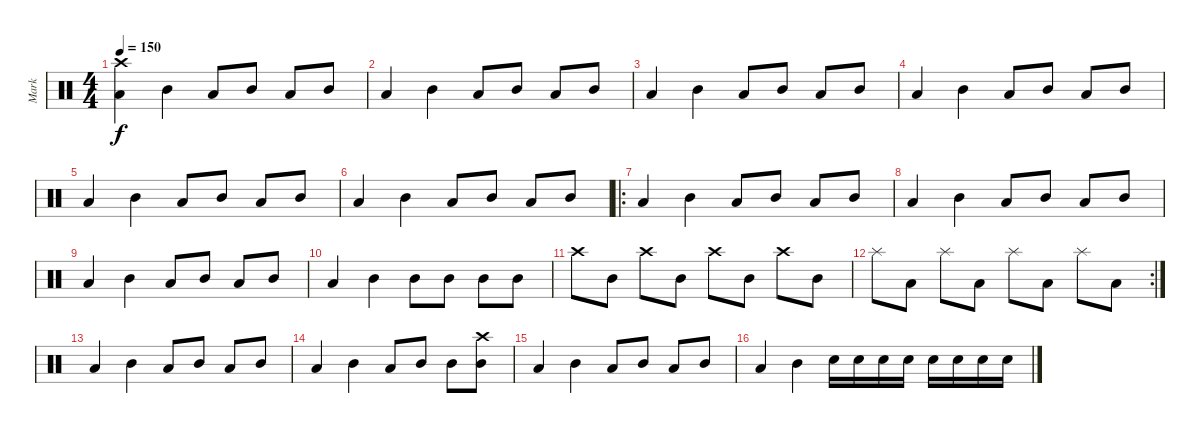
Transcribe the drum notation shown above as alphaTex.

\track ("Mark" "Mark") {instrument percussion}
\staff {score}
\articulation defaults
\ts (4 4)
\tempo 150
\clef neutral
\ks c
("Low Tom (hit)" "Crash high (hit)").4{dy f} "Mid Tom (hit)".4 "Low Tom (hit)".8 "Mid Tom (hit)".8 "Low Tom (hit)".8 "Mid Tom (hit)".8 |
"Low Tom (hit)".4 "Mid Tom (hit)".4 "Low Tom (hit)".8 "Mid Tom (hit)".8 "Low Tom (hit)".8 "Mid Tom (hit)".8 |
"Low Tom (hit)".4 "Mid Tom (hit)".4 "Low Tom (hit)".8 "Mid Tom (hit)".8 "Low Tom (hit)".8 "Mid Tom (hit)".8 |
"Low Tom (hit)".4 "Mid Tom (hit)".4 "Low Tom (hit)".8 "Mid Tom (hit)".8 "Low Tom (hit)".8 "Mid Tom (hit)".8 |
"Low Tom (hit)".4 "Mid Tom (hit)".4 "Low Tom (hit)".8 "Mid Tom (hit)".8 "Low Tom (hit)".8 "Mid Tom (hit)".8 |
"Low Tom (hit)".4 "Mid Tom (hit)".4 "Low Tom (hit)".8 "Mid Tom (hit)".8 "Low Tom (hit)".8 "Mid Tom (hit)".8 |
\ro "Low Tom (hit)".4 "Mid Tom (hit)".4 "Low Tom (hit)".8 "Mid Tom (hit)".8 "Low Tom (hit)".8 "Mid Tom (hit)".8
|
"Low Tom (hit)".4 "Mid Tom (hit)".4 "Low Tom (hit)".8 "Mid Tom (hit)".8 "Low Tom (hit)".8 "Mid Tom (hit)".8 |
"Low Tom (hit)".4 "Mid Tom (hit)".4 "Low Tom (hit)".8 "Mid Tom (hit)".8 "Low Tom (hit)".8 "Mid Tom (hit)".8 |
"Low Tom (hit)".4 "Mid Tom (hit)".4 "Mid Tom (hit)".8 "Mid Tom (hit)".8 "Mid Tom (hit)".8 "Mid Tom (hit)".8 |
"Crash high (hit)".8 "Mid Tom (hit)".8 "Crash high (hit)".8 "Mid Tom (hit)".8 "Crash high (hit)".8 "Mid Tom (hit)".8 "Crash high (hit)".8 "Mid Tom (hit)".8 |
\rc 2 "Splash (hit)".8 "Low Tom (hit)".8 "Splash (hit)".8 "Low Tom (hit)".8 "Splash (hit)".8 "Low Tom (hit)".8 "Splash (hit)".8 "Low Tom (hit)".8
|
"Low Tom (hit)".4 "Mid Tom (hit)".4 "Low Tom (hit)".8 "Mid Tom (hit)".8 "Low Tom (hit)".8 "Mid Tom (hit)".8 |
"Low Tom (hit)".4 "Mid Tom (hit)".4 "Low Tom (hit)".8 "Mid Tom (hit)".8 "Mid Tom (hit)".8 ("Crash high (hit)" "Mid Tom (hit)").8 |
"Low Tom (hit)".4 "Mid Tom (hit)".4 "Low Tom (hit)".8 "Mid Tom (hit)".8 "Low Tom (hit)".8 "Mid Tom (hit)".8 |
"Low Tom (hit)".4 "Mid Tom (hit)".4 "Snare (hit) 2".16 "Snare (hit) 2".16 "Snare (hit) 2".16 "Snare (hit) 2".16 "Snare (hit) 2".16 "Snare (hit) 2".16 "Snare (hit) 2".16 "Snare (hit) 2".16
